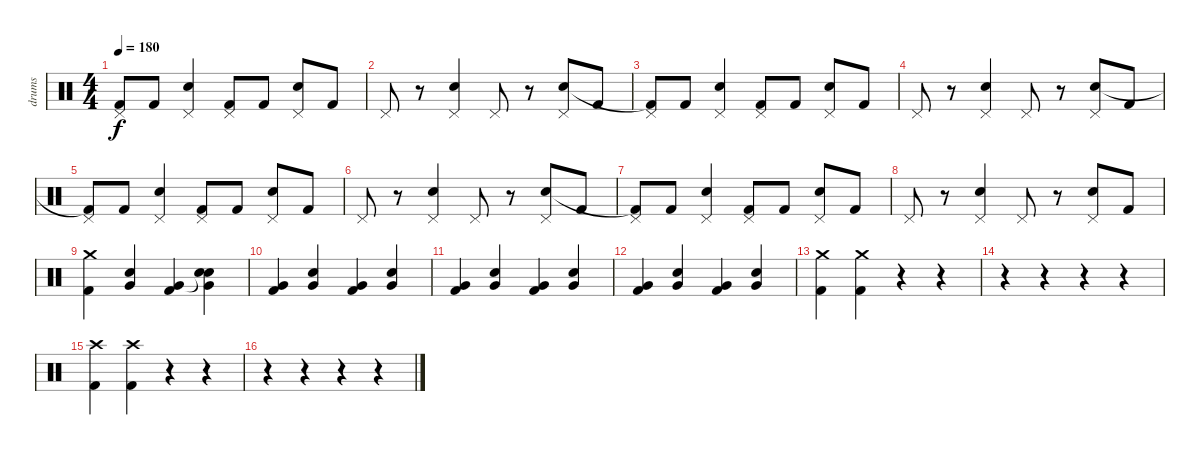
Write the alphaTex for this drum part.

\track ("drums" "drums") {instrument percussion}
\staff {score}
\articulation defaults
\ts (4 4)
\tempo 180
\clef neutral
\ks c
("Pedal Hi-Hat (hit)" "Kick (hit) 2").8{dy f} "Kick (hit) 2".8 ("Pedal Hi-Hat (hit)" "Electric Snare (hit)").4 ("Pedal Hi-Hat (hit)" "Kick (hit) 2").8 "Kick (hit) 2".8 ("Pedal Hi-Hat (hit)" "Electric Snare (hit)").8 "Kick (hit) 2".8 |
"Pedal Hi-Hat (hit)".8 r.8 ("Pedal Hi-Hat (hit)" "Electric Snare (hit)").4 "Pedal Hi-Hat (hit)".8 r.8 ("Pedal Hi-Hat (hit)" "Electric Snare (hit)").8 "Kick (hit) 2".8 |
("Pedal Hi-Hat (hit)" "Kick (hit) 2"{t}).8 "Kick (hit) 2".8 ("Pedal Hi-Hat (hit)" "Electric Snare (hit)").4 ("Pedal Hi-Hat (hit)" "Kick (hit) 2").8 "Kick (hit) 2".8 ("Pedal Hi-Hat (hit)" "Electric Snare (hit)").8 "Kick (hit) 2".8 |
"Pedal Hi-Hat (hit)".8 r.8 ("Pedal Hi-Hat (hit)" "Electric Snare (hit)").4 "Pedal Hi-Hat (hit)".8 r.8 ("Pedal Hi-Hat (hit)" "Electric Snare (hit)").8 "Kick (hit) 2".8 |
("Pedal Hi-Hat (hit)" "Kick (hit) 2"{t}).8 "Kick (hit) 2".8 ("Pedal Hi-Hat (hit)" "Electric Snare (hit)").4 ("Pedal Hi-Hat (hit)" "Kick (hit) 2").8 "Kick (hit) 2".8 ("Pedal Hi-Hat (hit)" "Electric Snare (hit)").8 "Kick (hit) 2".8 |
"Pedal Hi-Hat (hit)".8 r.8 ("Pedal Hi-Hat (hit)" "Electric Snare (hit)").4 "Pedal Hi-Hat (hit)".8 r.8 ("Pedal Hi-Hat (hit)" "Electric Snare (hit)").8 "Kick (hit) 2".8 |
("Pedal Hi-Hat (hit)" "Kick (hit) 2"{t}).8 "Kick (hit) 2".8 ("Pedal Hi-Hat (hit)" "Electric Snare (hit)").4 ("Pedal Hi-Hat (hit)" "Kick (hit) 2").8 "Kick (hit) 2".8 ("Pedal Hi-Hat (hit)" "Electric Snare (hit)").8 "Kick (hit) 2".8 |
"Pedal Hi-Hat (hit)".8 r.8 ("Pedal Hi-Hat (hit)" "Electric Snare (hit)").4 "Pedal Hi-Hat (hit)".8 r.8 ("Pedal Hi-Hat (hit)" "Electric Snare (hit)").8 "Kick (hit) 2".8 |
("Crash medium (hit)" "Kick (hit) 2").4 ("Very Low Tom (hit)" "Electric Snare (hit)").4 ("Very Low Tom (hit)" "Kick (hit) 2").4 ("Snare (hit)"{t} "Very Low Tom (hit)" "Electric Snare (hit)").4 |
("Very Low Tom (hit)" "Kick (hit) 2").4 ("Very Low Tom (hit)" "Electric Snare (hit)").4 ("Very Low Tom (hit)" "Kick (hit) 2").4 ("Very Low Tom (hit)" "Electric Snare (hit)").4 |
("Very Low Tom (hit)" "Kick (hit) 2").4 ("Very Low Tom (hit)" "Electric Snare (hit)").4 ("Very Low Tom (hit)" "Kick (hit) 2").4 ("Very Low Tom (hit)" "Electric Snare (hit)").4 |
("Very Low Tom (hit)" "Kick (hit) 2").4 ("Very Low Tom (hit)" "Electric Snare (hit)").4 ("Very Low Tom (hit)" "Kick (hit) 2").4 ("Very Low Tom (hit)" "Electric Snare (hit)").4 |
("Crash medium (hit)" "Kick (hit) 2").4 ("Crash medium (hit)" "Kick (hit) 2").4 r.4 r.4 |
r.4 r.4 r.4 r.4 |
("Crash high (hit)" "Kick (hit) 2").4 ("Crash high (hit)" "Kick (hit) 2").4 r.4 r.4 |
r.4 r.4 r.4 r.4
